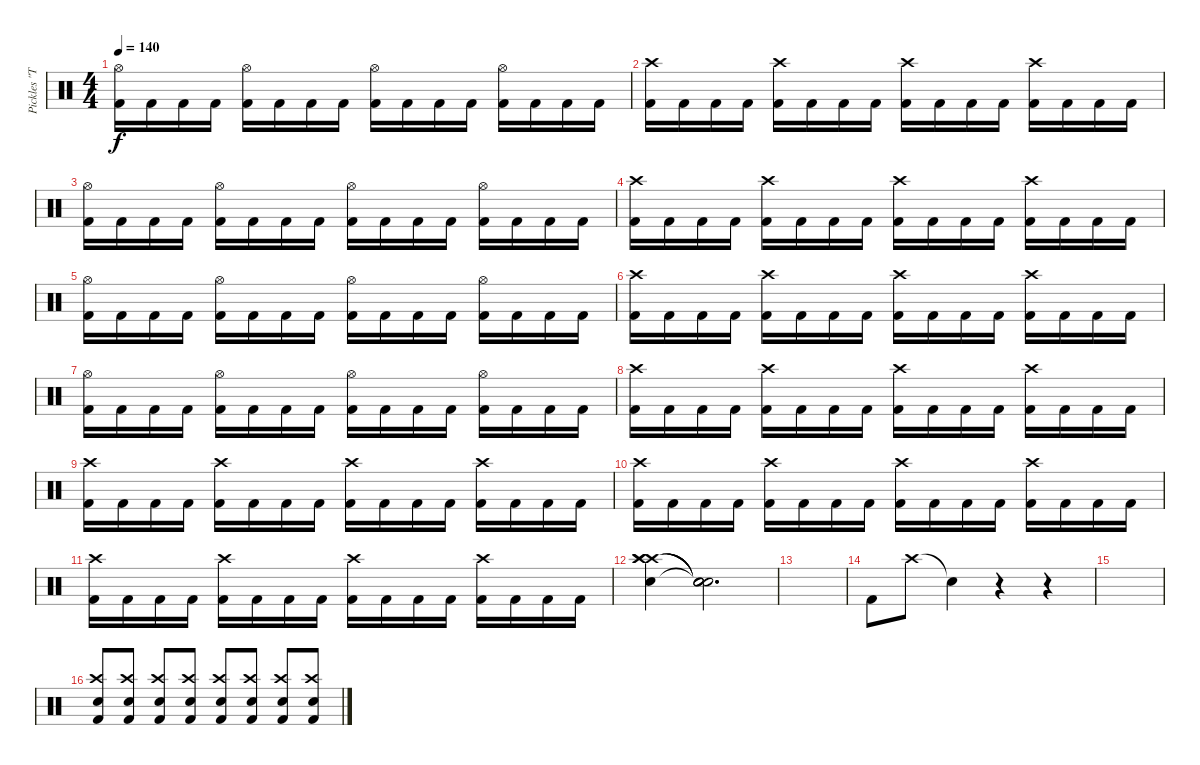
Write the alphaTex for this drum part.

\track ("Pickles \"The Drummer\"" "Pickles \"T") {instrument percussion}
\staff {score}
\articulation defaults
\ts (4 4)
\tempo 140
\clef neutral
\ks c
("Hi-Hat (open)" "Kick (hit) 2").16{dy f} "Kick (hit) 2".16 "Kick (hit) 2".16 "Kick (hit) 2".16 ("Hi-Hat (open)" "Kick (hit) 2").16 "Kick (hit) 2".16 "Kick (hit) 2".16 "Kick (hit) 2".16 ("Hi-Hat (open)" "Kick (hit) 2").16 "Kick (hit) 2".16 "Kick (hit) 2".16 "Kick (hit) 2".16 ("Hi-Hat (open)" "Kick (hit) 2").16 "Kick (hit) 2".16 "Kick (hit) 2".16 "Kick (hit) 2".16 |
("Crash high (hit)" "Kick (hit) 2").16 "Kick (hit) 2".16 "Kick (hit) 2".16 "Kick (hit) 2".16 ("Crash high (hit)" "Kick (hit) 2").16 "Kick (hit) 2".16 "Kick (hit) 2".16 "Kick (hit) 2".16 ("Crash high (hit)" "Kick (hit) 2").16 "Kick (hit) 2".16 "Kick (hit) 2".16 "Kick (hit) 2".16 ("Crash high (hit)" "Kick (hit) 2").16 "Kick (hit) 2".16 "Kick (hit) 2".16 "Kick (hit) 2".16 |
("Hi-Hat (open)" "Kick (hit) 2").16 "Kick (hit) 2".16 "Kick (hit) 2".16 "Kick (hit) 2".16 ("Hi-Hat (open)" "Kick (hit) 2").16 "Kick (hit) 2".16 "Kick (hit) 2".16 "Kick (hit) 2".16 ("Hi-Hat (open)" "Kick (hit) 2").16 "Kick (hit) 2".16 "Kick (hit) 2".16 "Kick (hit) 2".16 ("Hi-Hat (open)" "Kick (hit) 2").16 "Kick (hit) 2".16 "Kick (hit) 2".16 "Kick (hit) 2".16 |
("Crash high (hit)" "Kick (hit) 2").16 "Kick (hit) 2".16 "Kick (hit) 2".16 "Kick (hit) 2".16 ("Crash high (hit)" "Kick (hit) 2").16 "Kick (hit) 2".16 "Kick (hit) 2".16 "Kick (hit) 2".16 ("Crash high (hit)" "Kick (hit) 2").16 "Kick (hit) 2".16 "Kick (hit) 2".16 "Kick (hit) 2".16 ("Crash high (hit)" "Kick (hit) 2").16 "Kick (hit) 2".16 "Kick (hit) 2".16 "Kick (hit) 2".16 |
("Hi-Hat (open)" "Kick (hit) 2").16 "Kick (hit) 2".16 "Kick (hit) 2".16 "Kick (hit) 2".16 ("Hi-Hat (open)" "Kick (hit) 2").16 "Kick (hit) 2".16 "Kick (hit) 2".16 "Kick (hit) 2".16 ("Hi-Hat (open)" "Kick (hit) 2").16 "Kick (hit) 2".16 "Kick (hit) 2".16 "Kick (hit) 2".16 ("Hi-Hat (open)" "Kick (hit) 2").16 "Kick (hit) 2".16 "Kick (hit) 2".16 "Kick (hit) 2".16 |
("Crash high (hit)" "Kick (hit) 2").16 "Kick (hit) 2".16 "Kick (hit) 2".16 "Kick (hit) 2".16 ("Crash high (hit)" "Kick (hit) 2").16 "Kick (hit) 2".16 "Kick (hit) 2".16 "Kick (hit) 2".16 ("Crash high (hit)" "Kick (hit) 2").16 "Kick (hit) 2".16 "Kick (hit) 2".16 "Kick (hit) 2".16 ("Crash high (hit)" "Kick (hit) 2").16 "Kick (hit) 2".16 "Kick (hit) 2".16 "Kick (hit) 2".16 |
("Hi-Hat (open)" "Kick (hit) 2").16 "Kick (hit) 2".16 "Kick (hit) 2".16 "Kick (hit) 2".16 ("Hi-Hat (open)" "Kick (hit) 2").16 "Kick (hit) 2".16 "Kick (hit) 2".16 "Kick (hit) 2".16 ("Hi-Hat (open)" "Kick (hit) 2").16 "Kick (hit) 2".16 "Kick (hit) 2".16 "Kick (hit) 2".16 ("Hi-Hat (open)" "Kick (hit) 2").16 "Kick (hit) 2".16 "Kick (hit) 2".16 "Kick (hit) 2".16 |
("Crash high (hit)" "Kick (hit) 2").16 "Kick (hit) 2".16 "Kick (hit) 2".16 "Kick (hit) 2".16 ("Crash high (hit)" "Kick (hit) 2").16 "Kick (hit) 2".16 "Kick (hit) 2".16 "Kick (hit) 2".16 ("Crash high (hit)" "Kick (hit) 2").16 "Kick (hit) 2".16 "Kick (hit) 2".16 "Kick (hit) 2".16 ("Crash high (hit)" "Kick (hit) 2").16 "Kick (hit) 2".16 "Kick (hit) 2".16 "Kick (hit) 2".16 |
("Crash high (hit)" "Kick (hit) 2").16 "Kick (hit) 2".16 "Kick (hit) 2".16 "Kick (hit) 2".16 ("Crash high (hit)" "Kick (hit) 2").16 "Kick (hit) 2".16 "Kick (hit) 2".16 "Kick (hit) 2".16 ("Crash high (hit)" "Kick (hit) 2").16 "Kick (hit) 2".16 "Kick (hit) 2".16 "Kick (hit) 2".16 ("Crash high (hit)" "Kick (hit) 2").16 "Kick (hit) 2".16 "Kick (hit) 2".16 "Kick (hit) 2".16 |
("Crash high (hit)" "Kick (hit) 2").16 "Kick (hit) 2".16 "Kick (hit) 2".16 "Kick (hit) 2".16 ("Crash high (hit)" "Kick (hit) 2").16 "Kick (hit) 2".16 "Kick (hit) 2".16 "Kick (hit) 2".16 ("Crash high (hit)" "Kick (hit) 2").16 "Kick (hit) 2".16 "Kick (hit) 2".16 "Kick (hit) 2".16 ("Crash high (hit)" "Kick (hit) 2").16 "Kick (hit) 2".16 "Kick (hit) 2".16 "Kick (hit) 2".16 |
("Crash high (hit)" "Kick (hit) 2").16 "Kick (hit) 2".16 "Kick (hit) 2".16 "Kick (hit) 2".16 ("Crash high (hit)" "Kick (hit) 2").16 "Kick (hit) 2".16 "Kick (hit) 2".16 "Kick (hit) 2".16 ("Crash high (hit)" "Kick (hit) 2").16 "Kick (hit) 2".16 "Kick (hit) 2".16 "Kick (hit) 2".16 ("Crash high (hit)" "Kick (hit) 2").16 "Kick (hit) 2".16 "Kick (hit) 2".16 "Kick (hit) 2".16 |
("Crash high (hit)" "Crash high (hit)" "Crash high (hit)" "Electric Snare (hit)").4 ("Snare (hit)"{t} "Snare (hit)"{t} "Snare (hit)"{t} "Snare (hit)"{t}).2{d} |
|
"Kick (hit) 2".8 "Crash high (hit)".8 "Snare (hit)"{t}.4 r.4 r.4 |
|
("Crash high (hit)" "Electric Snare (hit)" "Kick (hit) 2").8 ("Crash high (hit)" "Electric Snare (hit)" "Kick (hit) 2").8 ("Crash high (hit)" "Electric Snare (hit)" "Kick (hit) 2").8 ("Crash high (hit)" "Electric Snare (hit)" "Kick (hit) 2").8 ("Crash high (hit)" "Electric Snare (hit)" "Kick (hit) 2").8 ("Crash high (hit)" "Electric Snare (hit)" "Kick (hit) 2").8 ("Crash high (hit)" "Electric Snare (hit)" "Kick (hit) 2").8 ("Crash high (hit)" "Electric Snare (hit)" "Kick (hit) 2").8
